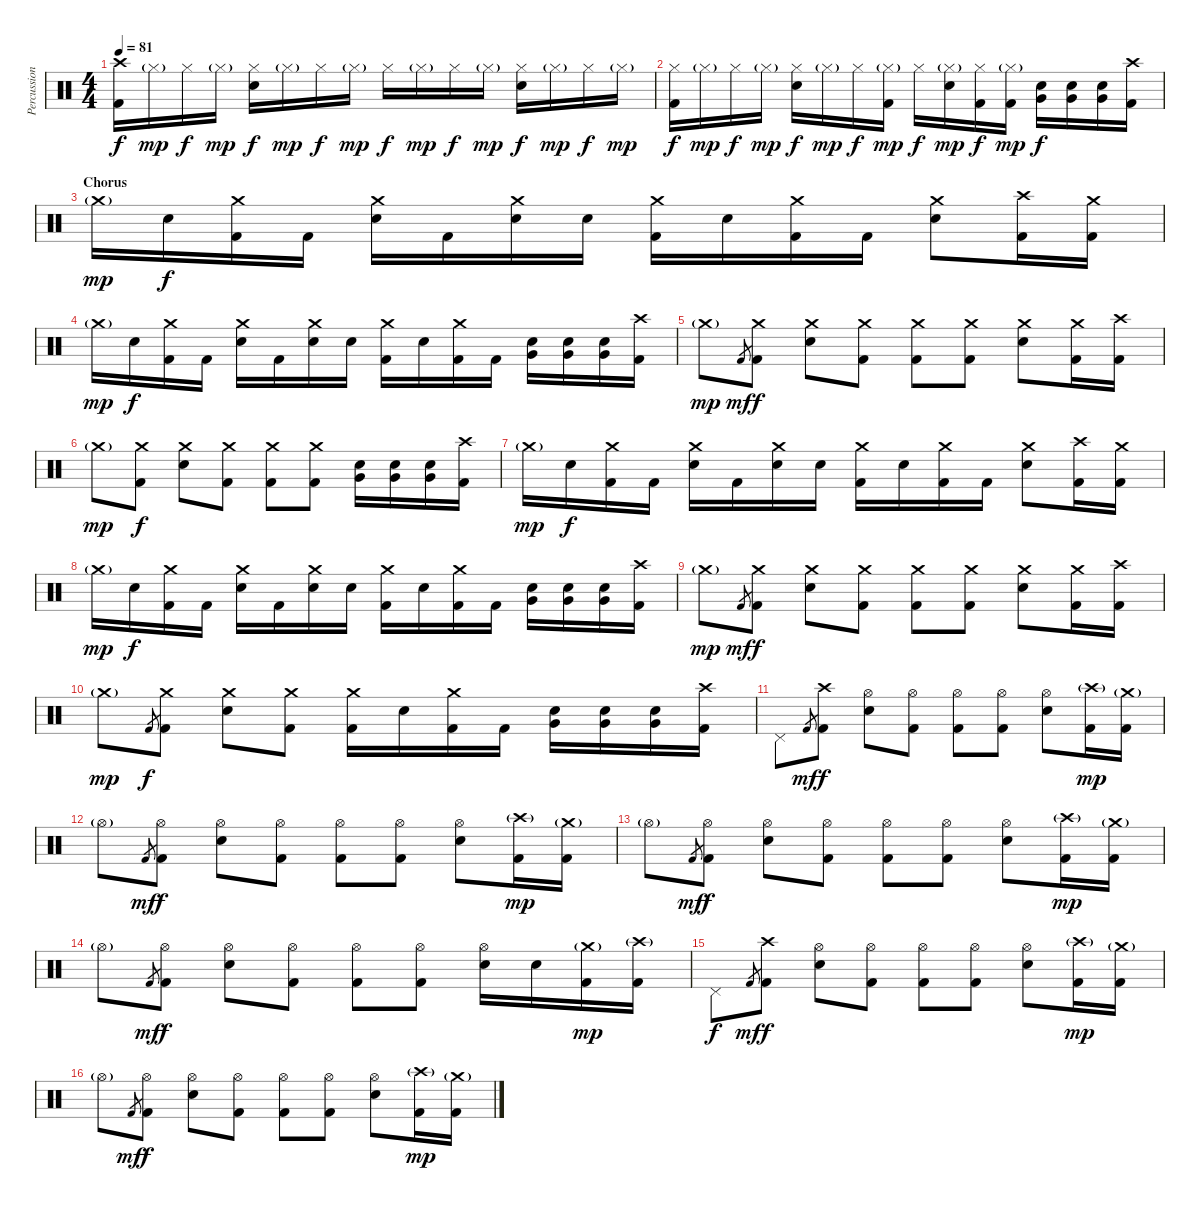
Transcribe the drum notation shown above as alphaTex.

\track ("Percussion" "Percussion") {instrument percussion}
\staff {score}
\articulation defaults
\ts (4 4)
\tempo 81
\clef neutral
\ks c
("Crash high (hit)" "Kick (hit) 2").16{dy f} "Hi-Hat (closed)"{g}.16{dy mp} "Hi-Hat (closed)".16{dy f} "Hi-Hat (closed)"{g}.16{dy mp} ("Hi-Hat (closed)" "Electric Snare (hit)").16{dy f} "Hi-Hat (closed)"{g}.16{dy mp} "Hi-Hat (closed)".16{dy f} "Hi-Hat (closed)"{g}.16{dy mp} "Hi-Hat (closed)".16{dy f} "Hi-Hat (closed)"{g}.16{dy mp} "Hi-Hat (closed)".16{dy f} "Hi-Hat (closed)"{g}.16{dy mp} ("Hi-Hat (closed)" "Electric Snare (hit)").16{dy f} "Hi-Hat (closed)"{g}.16{dy mp} "Hi-Hat (closed)".16{dy f} "Hi-Hat (closed)"{g}.16{dy mp} |
("Hi-Hat (closed)" "Kick (hit) 2").16{dy f} "Hi-Hat (closed)"{g}.16{dy mp} "Hi-Hat (closed)".16{dy f} "Hi-Hat (closed)"{g}.16{dy mp} ("Hi-Hat (closed)" "Electric Snare (hit)").16{dy f} "Hi-Hat (closed)"{g}.16{dy mp} "Hi-Hat (closed)".16{dy f} ("Hi-Hat (closed)"{g} "Kick (hit) 2").16{dy mp} "Hi-Hat (closed)".16{dy f} ("Hi-Hat (closed)"{g} "Electric Snare (hit)").16{dy mp} ("Hi-Hat (closed)" "Kick (hit) 2").16{dy f} ("Hi-Hat (closed)"{g} "Kick (hit) 2").16{dy mp} ("Very Low Tom (hit)" "Electric Snare (hit)").16{dy f} ("Very Low Tom (hit)" "Electric Snare (hit)").16 ("Very Low Tom (hit)" "Electric Snare (hit)").16 ("Crash high (hit)" "Kick (hit) 2").16 |
\section ("" "Chorus")
"Crash medium (hit)"{g}.16{dy mp} "Electric Snare (hit)".16{dy f} ("Crash medium (hit)" "Kick (hit) 2").16 "Kick (hit) 2".16 ("Crash medium (hit)" "Electric Snare (hit)").16 "Kick (hit) 2".16 ("Crash medium (hit)" "Electric Snare (hit)").16 "Electric Snare (hit)".16 ("Crash medium (hit)" "Kick (hit) 2").16 "Electric Snare (hit)".16 ("Crash medium (hit)" "Kick (hit) 2").16 "Kick (hit) 2".16 ("Crash medium (hit)" "Electric Snare (hit)").8 ("Crash high (hit)" "Kick (hit) 2").16 ("Crash medium (hit)" "Kick (hit) 2").16 |
"Crash medium (hit)"{g}.16{dy mp} "Electric Snare (hit)".16{dy f} ("Crash medium (hit)" "Kick (hit) 2").16 "Kick (hit) 2".16 ("Crash medium (hit)" "Electric Snare (hit)").16 "Kick (hit) 2".16 ("Crash medium (hit)" "Electric Snare (hit)").16 "Electric Snare (hit)".16 ("Crash medium (hit)" "Kick (hit) 2").16 "Electric Snare (hit)".16 ("Crash medium (hit)" "Kick (hit) 2").16 "Kick (hit) 2".16 ("Very Low Tom (hit)" "Electric Snare (hit)").16 ("Very Low Tom (hit)" "Electric Snare (hit)").16 ("Very Low Tom (hit)" "Electric Snare (hit)").16 ("Crash high (hit)" "Kick (hit) 2").16 |
"Crash medium (hit)"{g}.8{dy mp} "Kick (hit) 2".8{gr dy mf} ("Crash medium (hit)" "Kick (hit) 2").8{dy f} ("Crash medium (hit)" "Electric Snare (hit)").8 ("Crash medium (hit)" "Kick (hit) 2").8 ("Crash medium (hit)" "Kick (hit) 2").8 ("Crash medium (hit)" "Kick (hit) 2").8 ("Crash medium (hit)" "Electric Snare (hit)").8 ("Crash medium (hit)" "Kick (hit) 2").16 ("Crash high (hit)" "Kick (hit) 2").16 |
"Crash medium (hit)"{g}.8{dy mp} ("Crash medium (hit)" "Kick (hit) 2").8{dy f} ("Crash medium (hit)" "Electric Snare (hit)").8 ("Crash medium (hit)" "Kick (hit) 2").8 ("Crash medium (hit)" "Kick (hit) 2").8 ("Crash medium (hit)" "Kick (hit) 2").8 ("Very Low Tom (hit)" "Electric Snare (hit)").16 ("Very Low Tom (hit)" "Electric Snare (hit)").16 ("Very Low Tom (hit)" "Electric Snare (hit)").16 ("Crash high (hit)" "Kick (hit) 2").16 |
"Crash medium (hit)"{g}.16{dy mp} "Electric Snare (hit)".16{dy f} ("Crash medium (hit)" "Kick (hit) 2").16 "Kick (hit) 2".16 ("Crash medium (hit)" "Electric Snare (hit)").16 "Kick (hit) 2".16 ("Crash medium (hit)" "Electric Snare (hit)").16 "Electric Snare (hit)".16 ("Crash medium (hit)" "Kick (hit) 2").16 "Electric Snare (hit)".16 ("Crash medium (hit)" "Kick (hit) 2").16 "Kick (hit) 2".16 ("Crash medium (hit)" "Electric Snare (hit)").8 ("Crash high (hit)" "Kick (hit) 2").16 ("Crash medium (hit)" "Kick (hit) 2").16 |
"Crash medium (hit)"{g}.16{dy mp} "Electric Snare (hit)".16{dy f} ("Crash medium (hit)" "Kick (hit) 2").16 "Kick (hit) 2".16 ("Crash medium (hit)" "Electric Snare (hit)").16 "Kick (hit) 2".16 ("Crash medium (hit)" "Electric Snare (hit)").16 "Electric Snare (hit)".16 ("Crash medium (hit)" "Kick (hit) 2").16 "Electric Snare (hit)".16 ("Crash medium (hit)" "Kick (hit) 2").16 "Kick (hit) 2".16 ("Very Low Tom (hit)" "Electric Snare (hit)").16 ("Very Low Tom (hit)" "Electric Snare (hit)").16 ("Very Low Tom (hit)" "Electric Snare (hit)").16 ("Crash high (hit)" "Kick (hit) 2").16 |
"Crash medium (hit)"{g}.8{dy mp} "Kick (hit) 2".8{gr dy mf} ("Crash medium (hit)" "Kick (hit) 2").8{dy f} ("Crash medium (hit)" "Electric Snare (hit)").8 ("Crash medium (hit)" "Kick (hit) 2").8 ("Crash medium (hit)" "Kick (hit) 2").8 ("Crash medium (hit)" "Kick (hit) 2").8 ("Crash medium (hit)" "Electric Snare (hit)").8 ("Crash medium (hit)" "Kick (hit) 2").16 ("Crash high (hit)" "Kick (hit) 2").16 |
"Crash medium (hit)"{g}.8{dy mp} "Kick (hit) 2".8{gr dy f} ("Crash medium (hit)" "Kick (hit) 2").8 ("Crash medium (hit)" "Electric Snare (hit)").8 ("Crash medium (hit)" "Kick (hit) 2").8 ("Crash medium (hit)" "Kick (hit) 2").16 "Electric Snare (hit)".16 ("Crash medium (hit)" "Kick (hit) 2").16 "Kick (hit) 2".16 ("Very Low Tom (hit)" "Electric Snare (hit)").16 ("Very Low Tom (hit)" "Electric Snare (hit)").16 ("Very Low Tom (hit)" "Electric Snare (hit)").16 ("Crash high (hit)" "Kick (hit) 2").16 |
"Pedal Hi-Hat (hit)".8 "Kick (hit) 2".8{gr dy mf} ("Crash high (hit)" "Kick (hit) 2").8{dy f} ("Hi-Hat (open)" "Electric Snare (hit)").8 ("Hi-Hat (open)" "Kick (hit) 2").8 ("Hi-Hat (open)" "Kick (hit) 2").8 ("Hi-Hat (open)" "Kick (hit) 2").8 ("Hi-Hat (open)" "Electric Snare (hit)").8 ("Crash high (hit)"{g} "Kick (hit) 2").16{dy mp} ("Crash medium (hit)"{g} "Kick (hit) 2").16 |
"Hi-Hat (open)"{g}.8 "Kick (hit) 2".8{gr dy mf} ("Hi-Hat (open)" "Kick (hit) 2").8{dy f} ("Hi-Hat (open)" "Electric Snare (hit)").8 ("Hi-Hat (open)" "Kick (hit) 2").8 ("Hi-Hat (open)" "Kick (hit) 2").8 ("Hi-Hat (open)" "Kick (hit) 2").8 ("Hi-Hat (open)" "Electric Snare (hit)").8 ("Crash high (hit)"{g} "Kick (hit) 2").16{dy mp} ("Crash medium (hit)"{g} "Kick (hit) 2").16 |
"Hi-Hat (open)"{g}.8 "Kick (hit) 2".8{gr dy mf} ("Hi-Hat (open)" "Kick (hit) 2").8{dy f} ("Hi-Hat (open)" "Electric Snare (hit)").8 ("Hi-Hat (open)" "Kick (hit) 2").8 ("Hi-Hat (open)" "Kick (hit) 2").8 ("Hi-Hat (open)" "Kick (hit) 2").8 ("Hi-Hat (open)" "Electric Snare (hit)").8 ("Crash high (hit)"{g} "Kick (hit) 2").16{dy mp} ("Crash medium (hit)"{g} "Kick (hit) 2").16 |
"Hi-Hat (open)"{g}.8 "Kick (hit) 2".8{gr dy mf} ("Hi-Hat (open)" "Kick (hit) 2").8{dy f} ("Hi-Hat (open)" "Electric Snare (hit)").8 ("Hi-Hat (open)" "Kick (hit) 2").8 ("Hi-Hat (open)" "Kick (hit) 2").8 ("Hi-Hat (open)" "Kick (hit) 2").8 ("Hi-Hat (open)" "Electric Snare (hit)").16 "Electric Snare (hit)".16 ("Crash medium (hit)"{g} "Kick (hit) 2").16{dy mp} ("Crash high (hit)"{g} "Kick (hit) 2").16 |
"Pedal Hi-Hat (hit)".8{dy f} "Kick (hit) 2".8{gr dy mf} ("Crash high (hit)" "Kick (hit) 2").8{dy f} ("Hi-Hat (open)" "Electric Snare (hit)").8 ("Hi-Hat (open)" "Kick (hit) 2").8 ("Hi-Hat (open)" "Kick (hit) 2").8 ("Hi-Hat (open)" "Kick (hit) 2").8 ("Hi-Hat (open)" "Electric Snare (hit)").8 ("Crash high (hit)"{g} "Kick (hit) 2").16{dy mp} ("Crash medium (hit)"{g} "Kick (hit) 2").16 |
"Hi-Hat (open)"{g}.8 "Kick (hit) 2".8{gr dy mf} ("Hi-Hat (open)" "Kick (hit) 2").8{dy f} ("Hi-Hat (open)" "Electric Snare (hit)").8 ("Hi-Hat (open)" "Kick (hit) 2").8 ("Hi-Hat (open)" "Kick (hit) 2").8 ("Hi-Hat (open)" "Kick (hit) 2").8 ("Hi-Hat (open)" "Electric Snare (hit)").8 ("Crash high (hit)"{g} "Kick (hit) 2").16{dy mp} ("Crash medium (hit)"{g} "Kick (hit) 2").16
